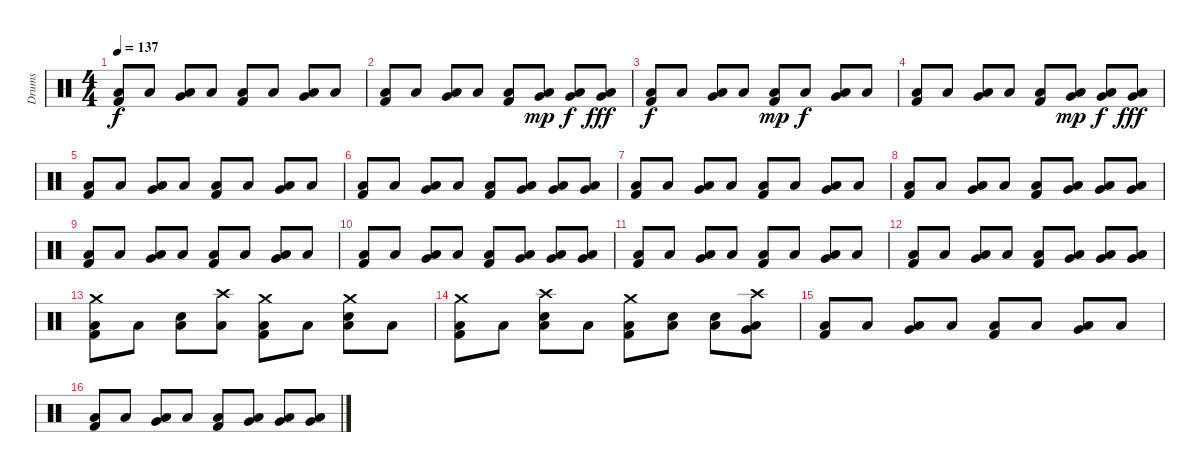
\track ("Drums" "Drums") {instrument percussion}
\staff {score}
\articulation defaults
\ts (4 4)
\tempo 137
\clef neutral
\ks c
("Low Floor Tom (hit)" "Kick (hit) 2").8{dy f} "Low Floor Tom (hit)".8 ("Very Low Tom (hit)" "Low Floor Tom (hit)").8 "Low Floor Tom (hit)".8 ("Low Floor Tom (hit)" "Kick (hit) 2").8 "Low Floor Tom (hit)".8 ("Very Low Tom (hit)" "Low Floor Tom (hit)").8 "Low Floor Tom (hit)".8 |
("Low Floor Tom (hit)" "Kick (hit) 2").8 "Low Floor Tom (hit)".8 ("Very Low Tom (hit)" "Low Floor Tom (hit)").8 "Low Floor Tom (hit)".8 ("Low Floor Tom (hit)" "Kick (hit) 2").8 ("Very Low Tom (hit)" "Low Floor Tom (hit)").8{dy mp} ("Very Low Tom (hit)" "Low Floor Tom (hit)").8{dy f} ("Very Low Tom (hit)" "Low Floor Tom (hit)").8{dy fff} |
("Low Floor Tom (hit)" "Kick (hit) 2").8{dy f} "Low Floor Tom (hit)".8 ("Very Low Tom (hit)" "Low Floor Tom (hit)").8 "Low Floor Tom (hit)".8 ("Low Floor Tom (hit)" "Kick (hit) 2").8{dy mp} "Low Floor Tom (hit)".8{dy f} ("Very Low Tom (hit)" "Low Floor Tom (hit)").8 "Low Floor Tom (hit)".8 |
("Low Floor Tom (hit)" "Kick (hit) 2").8 "Low Floor Tom (hit)".8 ("Very Low Tom (hit)" "Low Floor Tom (hit)").8 "Low Floor Tom (hit)".8 ("Low Floor Tom (hit)" "Kick (hit) 2").8 ("Very Low Tom (hit)" "Low Floor Tom (hit)").8{dy mp} ("Very Low Tom (hit)" "Low Floor Tom (hit)").8{dy f} ("Very Low Tom (hit)" "Low Floor Tom (hit)").8{dy fff} |
("Low Floor Tom (hit)" "Kick (hit) 2").8 "Low Floor Tom (hit)".8 ("Very Low Tom (hit)" "Low Floor Tom (hit)").8 "Low Floor Tom (hit)".8 ("Low Floor Tom (hit)" "Kick (hit) 2").8 "Low Floor Tom (hit)".8 ("Very Low Tom (hit)" "Low Floor Tom (hit)").8 "Low Floor Tom (hit)".8 |
("Low Floor Tom (hit)" "Kick (hit) 2").8 "Low Floor Tom (hit)".8 ("Very Low Tom (hit)" "Low Floor Tom (hit)").8 "Low Floor Tom (hit)".8 ("Low Floor Tom (hit)" "Kick (hit) 2").8 ("Very Low Tom (hit)" "Low Floor Tom (hit)").8 ("Very Low Tom (hit)" "Low Floor Tom (hit)").8 ("Very Low Tom (hit)" "Low Floor Tom (hit)").8 |
("Low Floor Tom (hit)" "Kick (hit) 2").8 "Low Floor Tom (hit)".8 ("Very Low Tom (hit)" "Low Floor Tom (hit)").8 "Low Floor Tom (hit)".8 ("Low Floor Tom (hit)" "Kick (hit) 2").8 "Low Floor Tom (hit)".8 ("Very Low Tom (hit)" "Low Floor Tom (hit)").8 "Low Floor Tom (hit)".8 |
("Low Floor Tom (hit)" "Kick (hit) 2").8 "Low Floor Tom (hit)".8 ("Very Low Tom (hit)" "Low Floor Tom (hit)").8 "Low Floor Tom (hit)".8 ("Low Floor Tom (hit)" "Kick (hit) 2").8 ("Very Low Tom (hit)" "Low Floor Tom (hit)").8 ("Very Low Tom (hit)" "Low Floor Tom (hit)").8 ("Very Low Tom (hit)" "Low Floor Tom (hit)").8 |
("Low Floor Tom (hit)" "Kick (hit) 2").8 "Low Floor Tom (hit)".8 ("Very Low Tom (hit)" "Low Floor Tom (hit)").8 "Low Floor Tom (hit)".8 ("Low Floor Tom (hit)" "Kick (hit) 2").8 "Low Floor Tom (hit)".8 ("Very Low Tom (hit)" "Low Floor Tom (hit)").8 "Low Floor Tom (hit)".8 |
("Low Floor Tom (hit)" "Kick (hit) 2").8 "Low Floor Tom (hit)".8 ("Very Low Tom (hit)" "Low Floor Tom (hit)").8 "Low Floor Tom (hit)".8 ("Low Floor Tom (hit)" "Kick (hit) 2").8 ("Very Low Tom (hit)" "Low Floor Tom (hit)").8 ("Very Low Tom (hit)" "Low Floor Tom (hit)").8 ("Very Low Tom (hit)" "Low Floor Tom (hit)").8 |
("Low Floor Tom (hit)" "Kick (hit) 2").8 "Low Floor Tom (hit)".8 ("Very Low Tom (hit)" "Low Floor Tom (hit)").8 "Low Floor Tom (hit)".8 ("Low Floor Tom (hit)" "Kick (hit) 2").8 "Low Floor Tom (hit)".8 ("Very Low Tom (hit)" "Low Floor Tom (hit)").8 "Low Floor Tom (hit)".8 |
("Low Floor Tom (hit)" "Kick (hit) 2").8 "Low Floor Tom (hit)".8 ("Very Low Tom (hit)" "Low Floor Tom (hit)").8 "Low Floor Tom (hit)".8 ("Low Floor Tom (hit)" "Kick (hit) 2").8 ("Very Low Tom (hit)" "Low Floor Tom (hit)").8 ("Very Low Tom (hit)" "Low Floor Tom (hit)").8 ("Very Low Tom (hit)" "Low Floor Tom (hit)").8 |
("Crash medium (hit)" "Low Floor Tom (hit)" "Kick (hit) 2").8 "Low Floor Tom (hit)".8 ("Electric Snare (hit)" "Low Floor Tom (hit)").8 ("Low Floor Tom (hit)" "Crash high (hit)").8 ("Crash medium (hit)" "Low Floor Tom (hit)" "Kick (hit) 2").8 "Low Floor Tom (hit)".8 ("Electric Snare (hit)" "Low Floor Tom (hit)" "Crash medium (hit)").8 "Low Floor Tom (hit)".8 |
("Crash medium (hit)" "Low Floor Tom (hit)" "Kick (hit) 2").8 "Low Floor Tom (hit)".8 ("Electric Snare (hit)" "Low Floor Tom (hit)" "Crash high (hit)").8 "Low Floor Tom (hit)".8 ("Crash medium (hit)" "Low Floor Tom (hit)" "Kick (hit) 2").8 ("Electric Snare (hit)" "Low Floor Tom (hit)").8 ("Electric Snare (hit)" "Low Floor Tom (hit)").8 ("Very Low Tom (hit)" "Low Floor Tom (hit)" "Crash high (hit)").8 |
("Low Floor Tom (hit)" "Kick (hit) 2").8 "Low Floor Tom (hit)".8 ("Very Low Tom (hit)" "Low Floor Tom (hit)").8 "Low Floor Tom (hit)".8 ("Low Floor Tom (hit)" "Kick (hit) 2").8 "Low Floor Tom (hit)".8 ("Very Low Tom (hit)" "Low Floor Tom (hit)").8 "Low Floor Tom (hit)".8 |
("Low Floor Tom (hit)" "Kick (hit) 2").8 "Low Floor Tom (hit)".8 ("Very Low Tom (hit)" "Low Floor Tom (hit)").8 "Low Floor Tom (hit)".8 ("Low Floor Tom (hit)" "Kick (hit) 2").8 ("Very Low Tom (hit)" "Low Floor Tom (hit)").8 ("Very Low Tom (hit)" "Low Floor Tom (hit)").8 ("Very Low Tom (hit)" "Low Floor Tom (hit)").8
